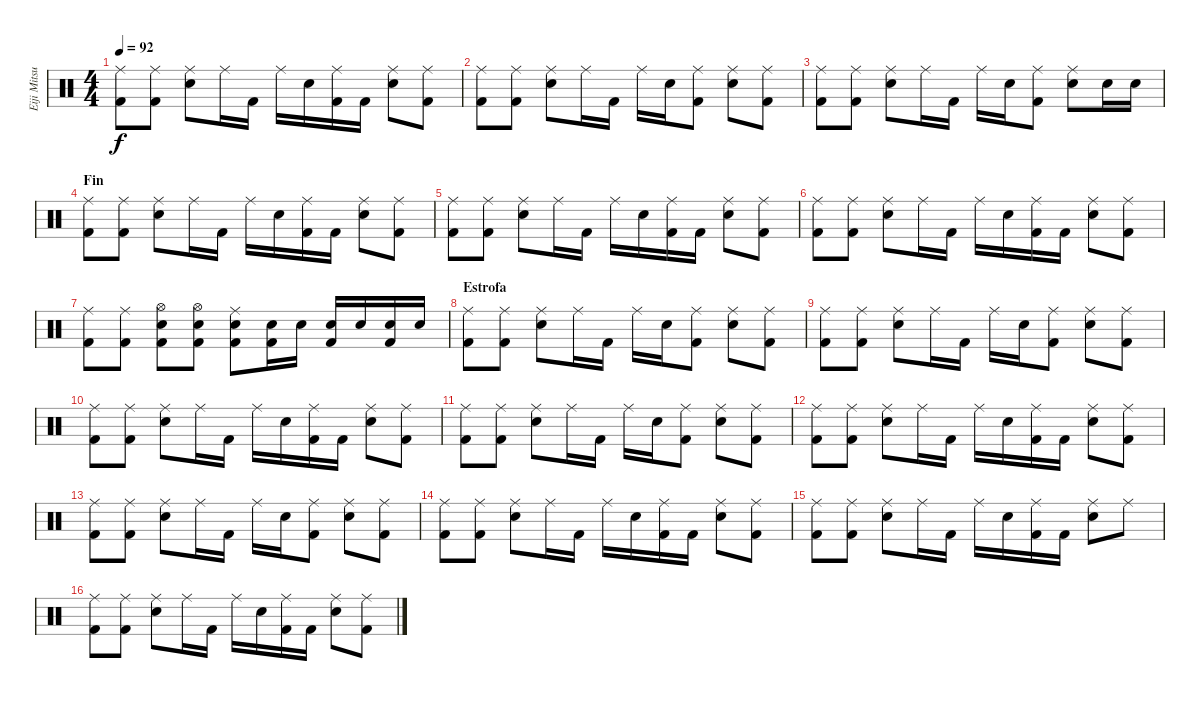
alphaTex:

\track ("Eiji Mitsuzono " "Eiji Mitsu") {instrument percussion}
\staff {score}
\articulation defaults
\ts (4 4)
\tempo 92
\clef neutral
\ks c
("Ride (middle)" "Kick (hit) 2").8{dy f} ("Ride (middle)" "Kick (hit) 2").8 ("Ride (middle)" "Snare (hit) 2").8 "Ride (middle)".16 "Kick (hit) 2".16 "Ride (middle)".16 "Snare (hit) 2".16 ("Ride (middle)" "Kick (hit) 2").16 "Kick (hit) 2".16 ("Ride (middle)" "Snare (hit) 2").8 ("Ride (middle)" "Kick (hit) 2").8 |
("Ride (middle)" "Kick (hit) 2").8 ("Ride (middle)" "Kick (hit) 2").8 ("Ride (middle)" "Snare (hit) 2").8 "Ride (middle)".16 "Kick (hit) 2".16 "Ride (middle)".16 "Snare (hit) 2".16 ("Ride (middle)" "Kick (hit) 2").8 ("Ride (middle)" "Snare (hit) 2").8 ("Ride (middle)" "Kick (hit) 2").8 |
("Ride (middle)" "Kick (hit) 2").8 ("Ride (middle)" "Kick (hit) 2").8 ("Ride (middle)" "Snare (hit) 2").8 "Ride (middle)".16 "Kick (hit) 2".16 "Ride (middle)".16 "Snare (hit) 2".16 ("Ride (middle)" "Kick (hit) 2").8 ("Ride (middle)" "Snare (hit) 2").8 "Snare (hit) 2".16 "Snare (hit) 2".16 |
\section ("" "Fin")
("Ride (middle)" "Kick (hit) 2").8 ("Ride (middle)" "Kick (hit) 2").8 ("Ride (middle)" "Snare (hit) 2").8 "Ride (middle)".16 "Kick (hit) 2".16 "Ride (middle)".16 "Snare (hit) 2".16 ("Ride (middle)" "Kick (hit) 2").16 "Kick (hit) 2".16 ("Ride (middle)" "Snare (hit) 2").8 ("Ride (middle)" "Kick (hit) 2").8 |
("Ride (middle)" "Kick (hit) 2").8 ("Ride (middle)" "Kick (hit) 2").8 ("Ride (middle)" "Snare (hit) 2").8 "Ride (middle)".16 "Kick (hit) 2".16 "Ride (middle)".16 "Snare (hit) 2".16 ("Ride (middle)" "Kick (hit) 2").16 "Kick (hit) 2".16 ("Ride (middle)" "Snare (hit) 2").8 ("Ride (middle)" "Kick (hit) 2").8 |
("Ride (middle)" "Kick (hit) 2").8 ("Ride (middle)" "Kick (hit) 2").8 ("Ride (middle)" "Snare (hit) 2").8 "Ride (middle)".16 "Kick (hit) 2".16 "Ride (middle)".16 "Snare (hit) 2".16 ("Ride (middle)" "Kick (hit) 2").16 "Kick (hit) 2".16 ("Ride (middle)" "Snare (hit) 2").8 ("Ride (middle)" "Kick (hit) 2").8 |
("Ride (middle)" "Kick (hit) 2").8 ("Ride (middle)" "Kick (hit) 2").8 ("Hi-Hat (open)" "Snare (hit) 2" "Kick (hit) 2").8 ("Hi-Hat (open)" "Snare (hit) 2" "Kick (hit) 2").8 ("Ride (middle)" "Snare (hit) 2" "Kick (hit) 2").8 ("Snare (hit) 2" "Kick (hit) 2").16 "Snare (hit) 2".16 ("Snare (hit) 2" "Kick (hit) 2").16 "Snare (hit) 2".16 ("Snare (hit) 2" "Kick (hit) 2").16 "Snare (hit) 2".16 |
\section ("" "Estrofa")
("Ride (middle)" "Kick (hit) 2").8 ("Ride (middle)" "Kick (hit) 2").8 ("Ride (middle)" "Snare (hit) 2").8 "Ride (middle)".16 "Kick (hit) 2".16 "Ride (middle)".16 "Snare (hit) 2".16 ("Ride (middle)" "Kick (hit) 2").8 ("Ride (middle)" "Snare (hit) 2").8 ("Ride (middle)" "Kick (hit) 2").8 |
("Ride (middle)" "Kick (hit) 2").8 ("Ride (middle)" "Kick (hit) 2").8 ("Ride (middle)" "Snare (hit) 2").8 "Ride (middle)".16 "Kick (hit) 2".16 "Ride (middle)".16 "Snare (hit) 2".16 ("Ride (middle)" "Kick (hit) 2").8 ("Ride (middle)" "Snare (hit) 2").8 ("Ride (middle)" "Kick (hit) 2").8 |
("Ride (middle)" "Kick (hit) 2").8 ("Ride (middle)" "Kick (hit) 2").8 ("Ride (middle)" "Snare (hit) 2").8 "Ride (middle)".16 "Kick (hit) 2".16 "Ride (middle)".16 "Snare (hit) 2".16 ("Ride (middle)" "Kick (hit) 2").16 "Kick (hit) 2".16 ("Ride (middle)" "Snare (hit) 2").8 ("Ride (middle)" "Kick (hit) 2").8 |
("Ride (middle)" "Kick (hit) 2").8 ("Ride (middle)" "Kick (hit) 2").8 ("Ride (middle)" "Snare (hit) 2").8 "Ride (middle)".16 "Kick (hit) 2".16 "Ride (middle)".16 "Snare (hit) 2".16 ("Ride (middle)" "Kick (hit) 2").8 ("Ride (middle)" "Snare (hit) 2").8 ("Ride (middle)" "Kick (hit) 2").8 |
("Ride (middle)" "Kick (hit) 2").8 ("Ride (middle)" "Kick (hit) 2").8 ("Ride (middle)" "Snare (hit) 2").8 "Ride (middle)".16 "Kick (hit) 2".16 "Ride (middle)".16 "Snare (hit) 2".16 ("Ride (middle)" "Kick (hit) 2").16 "Kick (hit) 2".16 ("Ride (middle)" "Snare (hit) 2").8 ("Ride (middle)" "Kick (hit) 2").8 |
("Ride (middle)" "Kick (hit) 2").8 ("Ride (middle)" "Kick (hit) 2").8 ("Ride (middle)" "Snare (hit) 2").8 "Ride (middle)".16 "Kick (hit) 2".16 "Ride (middle)".16 "Snare (hit) 2".16 ("Ride (middle)" "Kick (hit) 2").8 ("Ride (middle)" "Snare (hit) 2").8 ("Ride (middle)" "Kick (hit) 2").8 |
("Ride (middle)" "Kick (hit) 2").8 ("Ride (middle)" "Kick (hit) 2").8 ("Ride (middle)" "Snare (hit) 2").8 "Ride (middle)".16 "Kick (hit) 2".16 "Ride (middle)".16 "Snare (hit) 2".16 ("Ride (middle)" "Kick (hit) 2").16 "Kick (hit) 2".16 ("Ride (middle)" "Snare (hit) 2").8 ("Ride (middle)" "Kick (hit) 2").8 |
("Ride (middle)" "Kick (hit) 2").8 ("Ride (middle)" "Kick (hit) 2").8 ("Ride (middle)" "Snare (hit) 2").8 "Ride (middle)".16 "Kick (hit) 2".16 "Ride (middle)".16 "Snare (hit) 2".16 ("Ride (middle)" "Kick (hit) 2").16 "Kick (hit) 2".16 ("Ride (middle)" "Snare (hit) 2").8 "Ride (middle)".8 |
("Ride (middle)" "Kick (hit) 2").8 ("Ride (middle)" "Kick (hit) 2").8 ("Ride (middle)" "Snare (hit) 2").8 "Ride (middle)".16 "Kick (hit) 2".16 "Ride (middle)".16 "Snare (hit) 2".16 ("Ride (middle)" "Kick (hit) 2").16 "Kick (hit) 2".16 ("Ride (middle)" "Snare (hit) 2").8 ("Ride (middle)" "Kick (hit) 2").8
